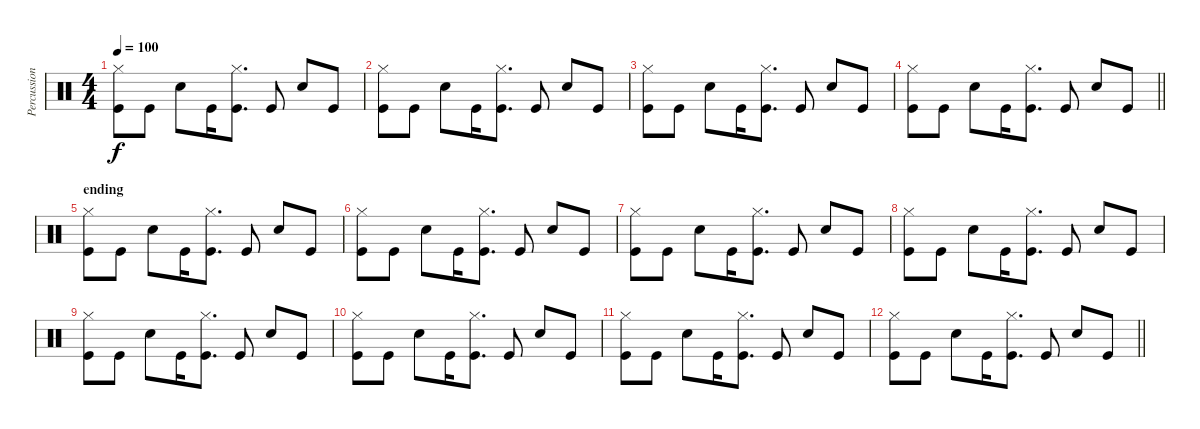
\track ("Percussion" "Percussion") {instrument percussion}
\staff {score}
\articulation defaults
\ts (4 4)
\tempo 100
\clef neutral
\ks c
("Hi-Hat (closed)" "Kick (hit)").8{dy f} "Kick (hit)".8 "Snare (hit) 2".8 "Kick (hit)".16 ("Hi-Hat (closed)" "Kick (hit)").8{d} "Kick (hit)".8 "Snare (hit) 2".8 "Kick (hit)".8 |
("Hi-Hat (closed)" "Kick (hit)").8 "Kick (hit)".8 "Snare (hit) 2".8 "Kick (hit)".16 ("Hi-Hat (closed)" "Kick (hit)").8{d} "Kick (hit)".8 "Snare (hit) 2".8 "Kick (hit)".8 |
("Hi-Hat (closed)" "Kick (hit)").8 "Kick (hit)".8 "Snare (hit) 2".8 "Kick (hit)".16 ("Hi-Hat (closed)" "Kick (hit)").8{d} "Kick (hit)".8 "Snare (hit) 2".8 "Kick (hit)".8 |
\barLineRight lightlight
("Hi-Hat (closed)" "Kick (hit)").8 "Kick (hit)".8 "Snare (hit) 2".8 "Kick (hit)".16 ("Hi-Hat (closed)" "Kick (hit)").8{d} "Kick (hit)".8 "Snare (hit) 2".8 "Kick (hit)".8 |
\section ("" "ending")
("Hi-Hat (closed)" "Kick (hit)").8 "Kick (hit)".8 "Snare (hit) 2".8 "Kick (hit)".16 ("Hi-Hat (closed)" "Kick (hit)").8{d} "Kick (hit)".8 "Snare (hit) 2".8 "Kick (hit)".8 |
("Hi-Hat (closed)" "Kick (hit)").8 "Kick (hit)".8 "Snare (hit) 2".8 "Kick (hit)".16 ("Hi-Hat (closed)" "Kick (hit)").8{d} "Kick (hit)".8 "Snare (hit) 2".8 "Kick (hit)".8 |
("Hi-Hat (closed)" "Kick (hit)").8 "Kick (hit)".8 "Snare (hit) 2".8 "Kick (hit)".16 ("Hi-Hat (closed)" "Kick (hit)").8{d} "Kick (hit)".8 "Snare (hit) 2".8 "Kick (hit)".8 |
("Hi-Hat (closed)" "Kick (hit)").8 "Kick (hit)".8 "Snare (hit) 2".8 "Kick (hit)".16 ("Hi-Hat (closed)" "Kick (hit)").8{d} "Kick (hit)".8 "Snare (hit) 2".8 "Kick (hit)".8 |
("Hi-Hat (closed)" "Kick (hit)").8 "Kick (hit)".8 "Snare (hit) 2".8 "Kick (hit)".16 ("Hi-Hat (closed)" "Kick (hit)").8{d} "Kick (hit)".8 "Snare (hit) 2".8 "Kick (hit)".8 |
("Hi-Hat (closed)" "Kick (hit)").8 "Kick (hit)".8 "Snare (hit) 2".8 "Kick (hit)".16 ("Hi-Hat (closed)" "Kick (hit)").8{d} "Kick (hit)".8 "Snare (hit) 2".8 "Kick (hit)".8 |
("Hi-Hat (closed)" "Kick (hit)").8 "Kick (hit)".8 "Snare (hit) 2".8 "Kick (hit)".16 ("Hi-Hat (closed)" "Kick (hit)").8{d} "Kick (hit)".8 "Snare (hit) 2".8 "Kick (hit)".8 |
\barLineRight lightlight
("Hi-Hat (closed)" "Kick (hit)").8 "Kick (hit)".8 "Snare (hit) 2".8 "Kick (hit)".16 ("Hi-Hat (closed)" "Kick (hit)").8{d} "Kick (hit)".8 "Snare (hit) 2".8 "Kick (hit)".8
